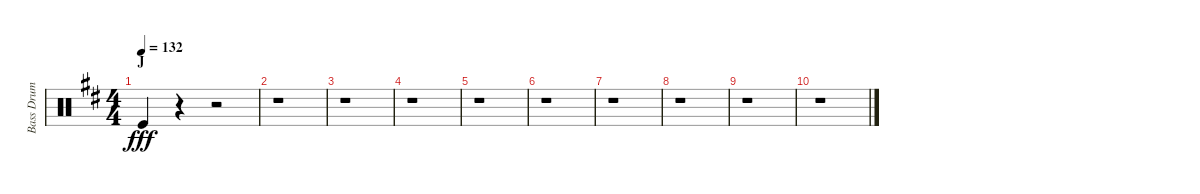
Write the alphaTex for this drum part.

\track ("Bass Drum" "Bass Drum") {instrument percussion}
\staff {score}
\articulation defaults
\ts (4 4)
\section ("" "J")
\tempo 132
\clef neutral
\ks d "Kick (hit)".4{dy fff}
r.4 r.2 |
r.1 |
r.1 |
r.1 |
r.1 |
r.1 |
r.1 |
r.1 |
r.1 |
r.1
